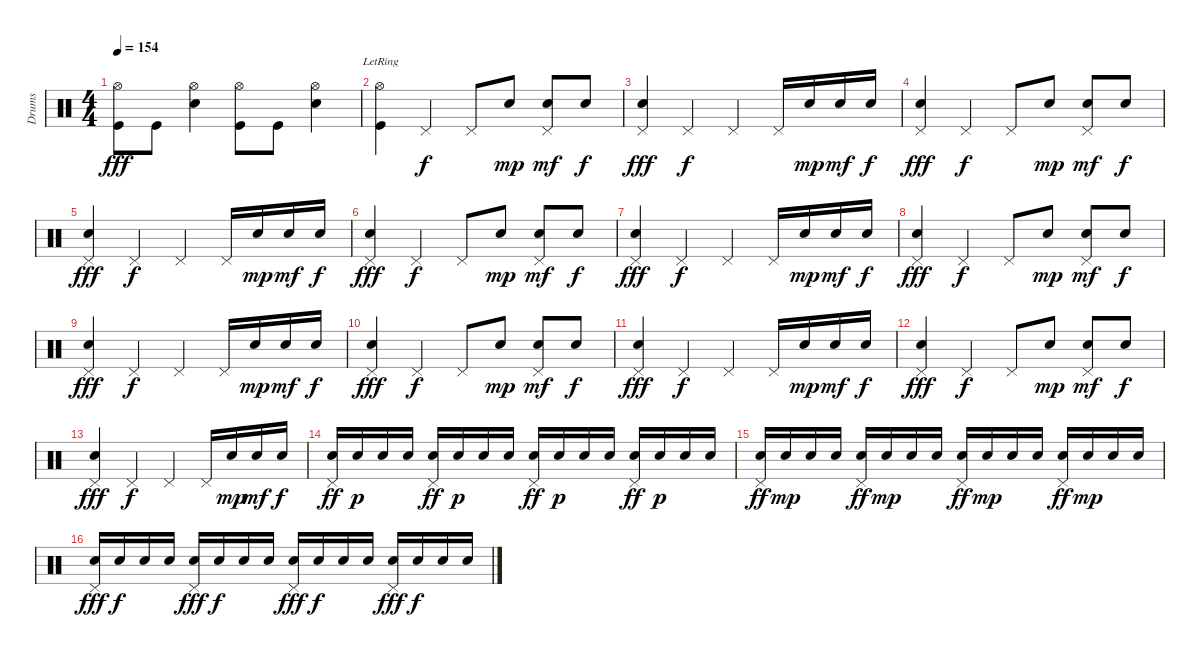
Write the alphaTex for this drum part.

\track ("Drums" "Drums") {instrument percussion}
\staff {score}
\articulation defaults
\ts (4 4)
\tempo 154
\clef neutral
\ks c
("Hi-Hat (open)" "Kick (hit)").8{dy fff} "Kick (hit)".8 ("Hi-Hat (open)" "Snare (hit) 2").4 ("Hi-Hat (open)" "Kick (hit)").8 "Kick (hit)".8 ("Hi-Hat (open)" "Snare (hit) 2").4 |
("Hi-Hat (open)"{lr} "Kick (hit)").4 "Pedal Hi-Hat (hit)".4{dy f} "Pedal Hi-Hat (hit)".8 "Snare (hit) 2".8{dy mp} ("Pedal Hi-Hat (hit)" "Snare (hit) 2").8{dy mf} "Snare (hit) 2".8{dy f} |
("Pedal Hi-Hat (hit)" "Snare (hit) 2").4{dy fff} "Pedal Hi-Hat (hit)".4{dy f} "Pedal Hi-Hat (hit)".4 "Pedal Hi-Hat (hit)".16 "Snare (hit) 2".16{dy mp} "Snare (hit) 2".16{dy mf} "Snare (hit) 2".16{dy f} |
("Pedal Hi-Hat (hit)" "Snare (hit) 2").4{dy fff} "Pedal Hi-Hat (hit)".4{dy f} "Pedal Hi-Hat (hit)".8 "Snare (hit) 2".8{dy mp} ("Pedal Hi-Hat (hit)" "Snare (hit) 2").8{dy mf} "Snare (hit) 2".8{dy f} |
("Pedal Hi-Hat (hit)" "Snare (hit) 2").4{dy fff} "Pedal Hi-Hat (hit)".4{dy f} "Pedal Hi-Hat (hit)".4 "Pedal Hi-Hat (hit)".16 "Snare (hit) 2".16{dy mp} "Snare (hit) 2".16{dy mf} "Snare (hit) 2".16{dy f} |
("Pedal Hi-Hat (hit)" "Snare (hit) 2").4{dy fff} "Pedal Hi-Hat (hit)".4{dy f} "Pedal Hi-Hat (hit)".8 "Snare (hit) 2".8{dy mp} ("Pedal Hi-Hat (hit)" "Snare (hit) 2").8{dy mf} "Snare (hit) 2".8{dy f} |
("Pedal Hi-Hat (hit)" "Snare (hit) 2").4{dy fff} "Pedal Hi-Hat (hit)".4{dy f} "Pedal Hi-Hat (hit)".4 "Pedal Hi-Hat (hit)".16 "Snare (hit) 2".16{dy mp} "Snare (hit) 2".16{dy mf} "Snare (hit) 2".16{dy f} |
("Pedal Hi-Hat (hit)" "Snare (hit) 2").4{dy fff} "Pedal Hi-Hat (hit)".4{dy f} "Pedal Hi-Hat (hit)".8 "Snare (hit) 2".8{dy mp} ("Pedal Hi-Hat (hit)" "Snare (hit) 2").8{dy mf} "Snare (hit) 2".8{dy f} |
("Pedal Hi-Hat (hit)" "Snare (hit) 2").4{dy fff} "Pedal Hi-Hat (hit)".4{dy f} "Pedal Hi-Hat (hit)".4 "Pedal Hi-Hat (hit)".16 "Snare (hit) 2".16{dy mp} "Snare (hit) 2".16{dy mf} "Snare (hit) 2".16{dy f} |
("Pedal Hi-Hat (hit)" "Snare (hit) 2").4{dy fff} "Pedal Hi-Hat (hit)".4{dy f} "Pedal Hi-Hat (hit)".8 "Snare (hit) 2".8{dy mp} ("Pedal Hi-Hat (hit)" "Snare (hit) 2").8{dy mf} "Snare (hit) 2".8{dy f} |
("Pedal Hi-Hat (hit)" "Snare (hit) 2").4{dy fff} "Pedal Hi-Hat (hit)".4{dy f} "Pedal Hi-Hat (hit)".4 "Pedal Hi-Hat (hit)".16 "Snare (hit) 2".16{dy mp} "Snare (hit) 2".16{dy mf} "Snare (hit) 2".16{dy f} |
("Pedal Hi-Hat (hit)" "Snare (hit) 2").4{dy fff} "Pedal Hi-Hat (hit)".4{dy f} "Pedal Hi-Hat (hit)".8 "Snare (hit) 2".8{dy mp} ("Pedal Hi-Hat (hit)" "Snare (hit) 2").8{dy mf} "Snare (hit) 2".8{dy f} |
("Pedal Hi-Hat (hit)" "Snare (hit) 2").4{dy fff} "Pedal Hi-Hat (hit)".4{dy f} "Pedal Hi-Hat (hit)".4 "Pedal Hi-Hat (hit)".16 "Snare (hit) 2".16{dy mp} "Snare (hit) 2".16{dy mf} "Snare (hit) 2".16{dy f} |
("Pedal Hi-Hat (hit)" "Snare (hit) 2").16{dy ff} "Snare (hit) 2".16{dy p} "Snare (hit) 2".16 "Snare (hit) 2".16 ("Pedal Hi-Hat (hit)" "Snare (hit) 2").16{dy ff} "Snare (hit) 2".16{dy p} "Snare (hit) 2".16 "Snare (hit) 2".16 ("Pedal Hi-Hat (hit)" "Snare (hit) 2").16{dy ff} "Snare (hit) 2".16{dy p} "Snare (hit) 2".16 "Snare (hit) 2".16 ("Pedal Hi-Hat (hit)" "Snare (hit) 2").16{dy ff} "Snare (hit) 2".16{dy p} "Snare (hit) 2".16 "Snare (hit) 2".16 |
("Pedal Hi-Hat (hit)" "Snare (hit) 2").16{dy ff} "Snare (hit) 2".16{dy mp} "Snare (hit) 2".16 "Snare (hit) 2".16 ("Pedal Hi-Hat (hit)" "Snare (hit) 2").16{dy ff} "Snare (hit) 2".16{dy mp} "Snare (hit) 2".16 "Snare (hit) 2".16 ("Pedal Hi-Hat (hit)" "Snare (hit) 2").16{dy ff} "Snare (hit) 2".16{dy mp} "Snare (hit) 2".16 "Snare (hit) 2".16 ("Pedal Hi-Hat (hit)" "Snare (hit) 2").16{dy ff} "Snare (hit) 2".16{dy mp} "Snare (hit) 2".16 "Snare (hit) 2".16 |
("Pedal Hi-Hat (hit)" "Snare (hit) 2").16{dy fff} "Snare (hit) 2".16{dy f} "Snare (hit) 2".16 "Snare (hit) 2".16 ("Pedal Hi-Hat (hit)" "Snare (hit) 2").16{dy fff} "Snare (hit) 2".16{dy f} "Snare (hit) 2".16 "Snare (hit) 2".16 ("Pedal Hi-Hat (hit)" "Snare (hit) 2").16{dy fff} "Snare (hit) 2".16{dy f} "Snare (hit) 2".16 "Snare (hit) 2".16 ("Pedal Hi-Hat (hit)" "Snare (hit) 2").16{dy fff} "Snare (hit) 2".16{dy f} "Snare (hit) 2".16 "Snare (hit) 2".16
